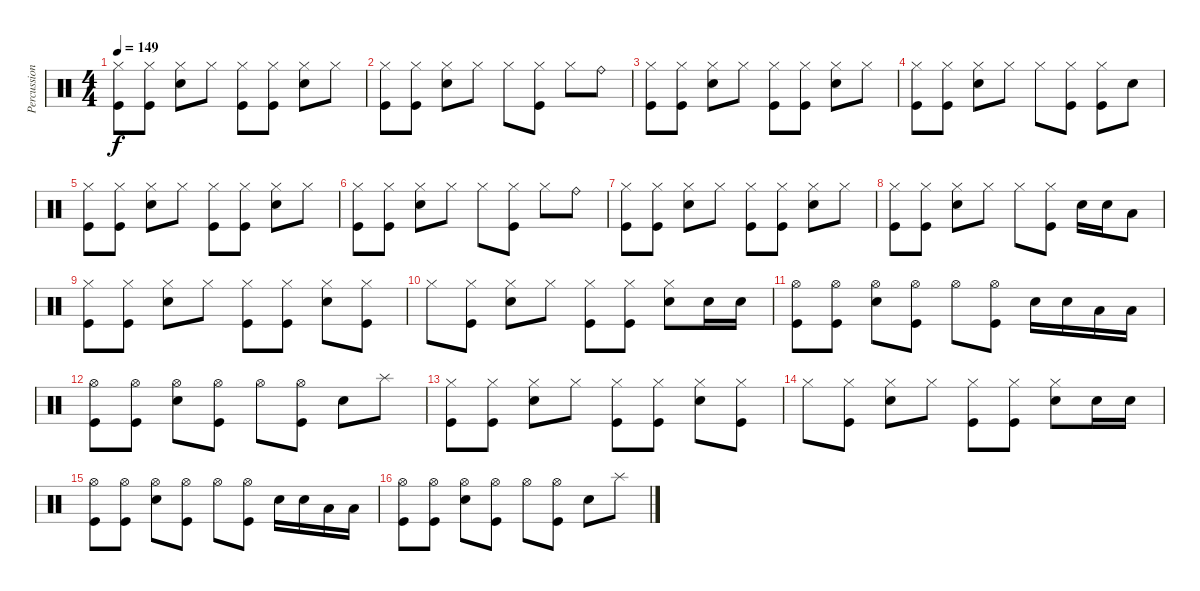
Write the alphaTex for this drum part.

\track ("Percussion" "Percussion") {instrument percussion}
\staff {score}
\articulation defaults
\ts (4 4)
\tempo 149
\clef neutral
\ks c
("Hi-Hat (closed)" "Kick (hit)").8{dy f} ("Hi-Hat (closed)" "Kick (hit)").8 ("Hi-Hat (closed)" "Snare (hit) 2").8 "Hi-Hat (closed)".8 ("Hi-Hat (closed)" "Kick (hit)").8 ("Hi-Hat (closed)" "Kick (hit)").8 ("Hi-Hat (closed)" "Snare (hit) 2").8 "Hi-Hat (closed)".8 |
("Hi-Hat (closed)" "Kick (hit)").8 ("Hi-Hat (closed)" "Kick (hit)").8 ("Hi-Hat (closed)" "Snare (hit) 2").8 "Hi-Hat (closed)".8 "Hi-Hat (closed)".8 ("Hi-Hat (closed)" "Kick (hit)").8 "Hi-Hat (closed)".8 "Ride (bell)".8 |
("Hi-Hat (closed)" "Kick (hit)").8 ("Hi-Hat (closed)" "Kick (hit)").8 ("Hi-Hat (closed)" "Snare (hit) 2").8 "Hi-Hat (closed)".8 ("Hi-Hat (closed)" "Kick (hit)").8 ("Hi-Hat (closed)" "Kick (hit)").8 ("Hi-Hat (closed)" "Snare (hit) 2").8 "Hi-Hat (closed)".8 |
("Hi-Hat (closed)" "Kick (hit)").8 ("Hi-Hat (closed)" "Kick (hit)").8 ("Hi-Hat (closed)" "Snare (hit) 2").8 "Hi-Hat (closed)".8 "Hi-Hat (closed)".8 ("Hi-Hat (closed)" "Kick (hit)").8 ("Hi-Hat (closed)" "Kick (hit)").8 "Snare (hit) 2".8 |
("Hi-Hat (closed)" "Kick (hit)").8 ("Hi-Hat (closed)" "Kick (hit)").8 ("Hi-Hat (closed)" "Snare (hit) 2").8 "Hi-Hat (closed)".8 ("Hi-Hat (closed)" "Kick (hit)").8 ("Hi-Hat (closed)" "Kick (hit)").8 ("Hi-Hat (closed)" "Snare (hit) 2").8 "Hi-Hat (closed)".8 |
("Hi-Hat (closed)" "Kick (hit)").8 ("Hi-Hat (closed)" "Kick (hit)").8 ("Hi-Hat (closed)" "Snare (hit) 2").8 "Hi-Hat (closed)".8 "Hi-Hat (closed)".8 ("Hi-Hat (closed)" "Kick (hit)").8 "Hi-Hat (closed)".8 "Ride (bell)".8 |
("Hi-Hat (closed)" "Kick (hit)").8 ("Hi-Hat (closed)" "Kick (hit)").8 ("Hi-Hat (closed)" "Snare (hit) 2").8 "Hi-Hat (closed)".8 ("Hi-Hat (closed)" "Kick (hit)").8 ("Hi-Hat (closed)" "Kick (hit)").8 ("Hi-Hat (closed)" "Snare (hit) 2").8 "Hi-Hat (closed)".8 |
("Hi-Hat (closed)" "Kick (hit)").8 ("Hi-Hat (closed)" "Kick (hit)").8 ("Hi-Hat (closed)" "Snare (hit) 2").8 "Hi-Hat (closed)".8 "Hi-Hat (closed)".8 ("Hi-Hat (closed)" "Kick (hit)").8 "Snare (hit) 2".16 "Snare (hit) 2".16 "Low Tom (hit)".8 |
("Hi-Hat (closed)" "Kick (hit)").8 ("Hi-Hat (closed)" "Kick (hit)").8 ("Hi-Hat (closed)" "Snare (hit) 2").8 "Hi-Hat (closed)".8 ("Hi-Hat (closed)" "Kick (hit)").8 ("Hi-Hat (closed)" "Kick (hit)").8 ("Hi-Hat (closed)" "Snare (hit) 2").8 ("Hi-Hat (closed)" "Kick (hit)").8 |
"Hi-Hat (closed)".8 ("Hi-Hat (closed)" "Kick (hit)").8 ("Hi-Hat (closed)" "Snare (hit) 2").8 "Hi-Hat (closed)".8 ("Hi-Hat (closed)" "Kick (hit)").8 ("Hi-Hat (closed)" "Kick (hit)").8 ("Hi-Hat (closed)" "Snare (hit) 2").8 "Snare (hit) 2".16 "Snare (hit) 2".16 |
("Hi-Hat (open)" "Kick (hit)").8 ("Hi-Hat (open)" "Kick (hit)").8 ("Hi-Hat (open)" "Snare (hit) 2").8 ("Hi-Hat (open)" "Kick (hit)").8 "Hi-Hat (open)".8 ("Hi-Hat (open)" "Kick (hit)").8 "Snare (hit) 2".16 "Snare (hit) 2".16 "Low Tom (hit)".16 "Low Tom (hit)".16 |
("Hi-Hat (open)" "Kick (hit)").8 ("Hi-Hat (open)" "Kick (hit)").8 ("Hi-Hat (open)" "Snare (hit) 2").8 ("Hi-Hat (open)" "Kick (hit)").8 "Hi-Hat (open)".8 ("Hi-Hat (open)" "Kick (hit)").8 "Snare (hit) 2".8 "Splash (hit)".8 |
("Hi-Hat (closed)" "Kick (hit)").8 ("Hi-Hat (closed)" "Kick (hit)").8 ("Hi-Hat (closed)" "Snare (hit) 2").8 "Hi-Hat (closed)".8 ("Hi-Hat (closed)" "Kick (hit)").8 ("Hi-Hat (closed)" "Kick (hit)").8 ("Hi-Hat (closed)" "Snare (hit) 2").8 ("Hi-Hat (closed)" "Kick (hit)").8 |
"Hi-Hat (closed)".8 ("Hi-Hat (closed)" "Kick (hit)").8 ("Hi-Hat (closed)" "Snare (hit) 2").8 "Hi-Hat (closed)".8 ("Hi-Hat (closed)" "Kick (hit)").8 ("Hi-Hat (closed)" "Kick (hit)").8 ("Hi-Hat (closed)" "Snare (hit) 2").8 "Snare (hit) 2".16 "Snare (hit) 2".16 |
("Hi-Hat (open)" "Kick (hit)").8 ("Hi-Hat (open)" "Kick (hit)").8 ("Hi-Hat (open)" "Snare (hit) 2").8 ("Hi-Hat (open)" "Kick (hit)").8 "Hi-Hat (open)".8 ("Hi-Hat (open)" "Kick (hit)").8 "Snare (hit) 2".16 "Snare (hit) 2".16 "Low Tom (hit)".16 "Low Tom (hit)".16 |
("Hi-Hat (open)" "Kick (hit)").8 ("Hi-Hat (open)" "Kick (hit)").8 ("Hi-Hat (open)" "Snare (hit) 2").8 ("Hi-Hat (open)" "Kick (hit)").8 "Hi-Hat (open)".8 ("Hi-Hat (open)" "Kick (hit)").8 "Snare (hit) 2".8 "Splash (hit)".8
